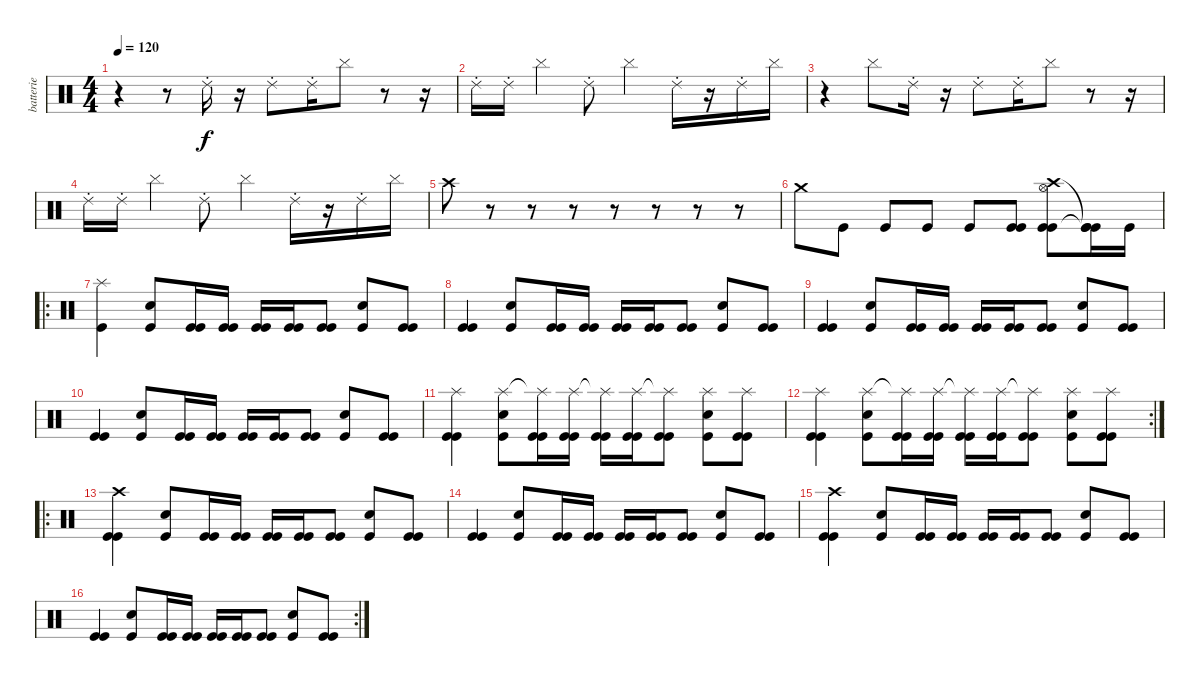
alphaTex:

\track ("batterie" "batterie") {instrument percussion}
\staff {score}
\articulation defaults
\ts (4 4)
\tempo 120
\clef neutral
\ks c
r.4{dy f} r.8 "Ride (choke) 2".16 r.16 "Ride (choke) 2".8 "Ride (choke) 2".16 "Cymbal (hit)".8 r.8 r.16 |
"Ride (choke) 2".16 "Ride (choke) 2".16 "Cymbal (hit)".4 "Ride (choke) 2".8 "Cymbal (hit)".4 "Ride (choke) 2".16 r.16 "Ride (choke) 2".16 "Cymbal (hit)".16 |
r.4 "Cymbal (hit)".8 "Ride (choke) 2".16 r.16 "Ride (choke) 2".8 "Ride (choke) 2".16 "Cymbal (hit)".8 r.8 r.16 |
"Ride (choke) 2".16 "Ride (choke) 2".16 "Cymbal (hit)".4 "Ride (choke) 2".8 "Cymbal (hit)".4 "Ride (choke) 2".16 r.16 "Ride (choke) 2".16 "Cymbal (hit)".16 |
"Crash high (hit)".8 r.8 r.8 r.8 r.8 r.8 r.8 r.8 |
"Crash medium (hit)".8 "Kick (hit)".8 "Kick (hit)".8 "Kick (hit)".8 "Kick (hit)".8 ("Kick (hit)" "Kick (hit)").8 ("Kick (hit)" "Crash high (hit)" "Hi-Hat (open)" "Kick (hit)").8 ("Kick (hit)"{t} "Kick (hit)"{t} "Kick (hit)").16 "Kick (hit)".16 |
\ro
("Kick (hit)" "Splash (hit)").4 ("Electric Snare (hit)" "Kick (hit)").8 ("Kick (hit)" "Kick (hit)").16 ("Kick (hit)" "Kick (hit)").16 ("Kick (hit)" "Kick (hit)").16 ("Kick (hit)" "Kick (hit)").16 ("Kick (hit)" "Kick (hit)").8 ("Electric Snare (hit)" "Kick (hit)").8 ("Kick (hit)" "Kick (hit)").8 |
("Kick (hit)" "Kick (hit)").4 ("Electric Snare (hit)" "Kick (hit)").8 ("Kick (hit)" "Kick (hit)").16 ("Kick (hit)" "Kick (hit)").16 ("Kick (hit)" "Kick (hit)").16 ("Kick (hit)" "Kick (hit)").16 ("Kick (hit)" "Kick (hit)").8 ("Electric Snare (hit)" "Kick (hit)").8 ("Kick (hit)" "Kick (hit)").8 |
("Kick (hit)" "Kick (hit)").4 ("Electric Snare (hit)" "Kick (hit)").8 ("Kick (hit)" "Kick (hit)").16 ("Kick (hit)" "Kick (hit)").16 ("Kick (hit)" "Kick (hit)").16 ("Kick (hit)" "Kick (hit)").16 ("Kick (hit)" "Kick (hit)").8 ("Electric Snare (hit)" "Kick (hit)").8 ("Kick (hit)" "Kick (hit)").8 |
("Kick (hit)" "Kick (hit)").4 ("Electric Snare (hit)" "Kick (hit)").8 ("Kick (hit)" "Kick (hit)").16 ("Kick (hit)" "Kick (hit)").16 ("Kick (hit)" "Kick (hit)").16 ("Kick (hit)" "Kick (hit)").16 ("Kick (hit)" "Kick (hit)").8 ("Electric Snare (hit)" "Kick (hit)").8 ("Kick (hit)" "Kick (hit)").8 |
("Kick (hit)" "Splash (hit)" "Kick (hit)").4 ("Electric Snare (hit)" "Splash (hit)" "Kick (hit)").8 ("Kick (hit)" "Splash (hit)"{t} "Kick (hit)").16 ("Kick (hit)" "Splash (hit)" "Kick (hit)").16 ("Kick (hit)" "Splash (hit)"{t} "Kick (hit)").16 ("Kick (hit)" "Splash (hit)" "Kick (hit)").16 ("Kick (hit)" "Splash (hit)"{t} "Kick (hit)").8 ("Electric Snare (hit)" "Splash (hit)" "Kick (hit)").8 ("Kick (hit)" "Splash (hit)" "Kick (hit)").8 |
\rc 2
("Kick (hit)" "Splash (hit)" "Kick (hit)").4 ("Electric Snare (hit)" "Splash (hit)" "Kick (hit)").8 ("Kick (hit)" "Splash (hit)"{t} "Kick (hit)").16 ("Kick (hit)" "Splash (hit)" "Kick (hit)").16 ("Kick (hit)" "Splash (hit)"{t} "Kick (hit)").16 ("Kick (hit)" "Splash (hit)" "Kick (hit)").16 ("Kick (hit)" "Splash (hit)"{t} "Kick (hit)").8 ("Electric Snare (hit)" "Splash (hit)" "Kick (hit)").8 ("Kick (hit)" "Splash (hit)" "Kick (hit)").8 |
\ro
("Kick (hit)" "Crash high (hit)" "Kick (hit)").4 ("Electric Snare (hit)" "Kick (hit)").8 ("Kick (hit)" "Kick (hit)").16 ("Kick (hit)" "Kick (hit)").16 ("Kick (hit)" "Kick (hit)").16 ("Kick (hit)" "Kick (hit)").16 ("Kick (hit)" "Kick (hit)").8 ("Electric Snare (hit)" "Kick (hit)").8 ("Kick (hit)" "Kick (hit)").8 |
("Kick (hit)" "Kick (hit)").4 ("Electric Snare (hit)" "Kick (hit)").8 ("Kick (hit)" "Kick (hit)").16 ("Kick (hit)" "Kick (hit)").16 ("Kick (hit)" "Kick (hit)").16 ("Kick (hit)" "Kick (hit)").16 ("Kick (hit)" "Kick (hit)").8 ("Electric Snare (hit)" "Kick (hit)").8 ("Kick (hit)" "Kick (hit)").8 |
("Kick (hit)" "Crash high (hit)" "Kick (hit)").4 ("Electric Snare (hit)" "Kick (hit)").8 ("Kick (hit)" "Kick (hit)").16 ("Kick (hit)" "Kick (hit)").16 ("Kick (hit)" "Kick (hit)").16 ("Kick (hit)" "Kick (hit)").16 ("Kick (hit)" "Kick (hit)").8 ("Electric Snare (hit)" "Kick (hit)").8 ("Kick (hit)" "Kick (hit)").8 |
\rc 2
("Kick (hit)" "Kick (hit)").4 ("Electric Snare (hit)" "Kick (hit)").8 ("Kick (hit)" "Kick (hit)").16 ("Kick (hit)" "Kick (hit)").16 ("Kick (hit)" "Kick (hit)").16 ("Kick (hit)" "Kick (hit)").16 ("Kick (hit)" "Kick (hit)").8 ("Electric Snare (hit)" "Kick (hit)").8 ("Kick (hit)" "Kick (hit)").8
